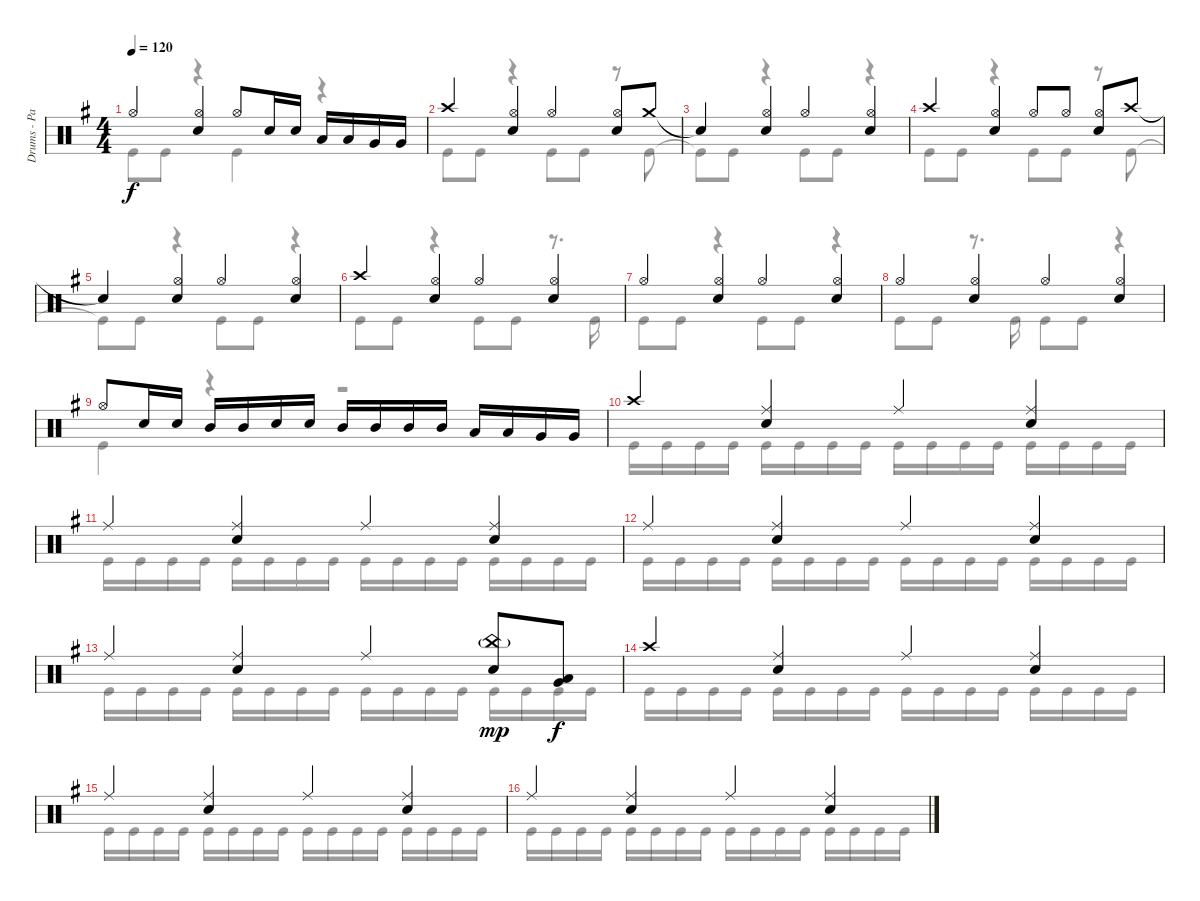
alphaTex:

\track ("Drums - Patrick Johansson" "Drums - Pa") {instrument percussion}
\staff {score}
\articulation defaults
\voice
\ts (4 4)
\tempo 120
\clef neutral
\ks eminor "Hi-Hat (open)".4{dy f}
("Hi-Hat (open)" "Snare (hit) 2").4 "Hi-Hat (open)".8 "Snare (hit) 2".16 "Snare (hit) 2".16 "Low Tom (hit)".16 "Low Tom (hit)".16 "Very Low Tom (hit)".16 "Very Low Tom (hit)".16 |
"Crash high (hit)".4 ("Hi-Hat (open)" "Snare (hit) 2").4 "Hi-Hat (open)".4 ("Hi-Hat (open)" "Snare (hit) 2").8 "Crash medium (hit)".8 |
"Snare (hit)"{t}.4 ("Hi-Hat (open)" "Snare (hit) 2").4 "Hi-Hat (open)".4 ("Hi-Hat (open)" "Snare (hit) 2").4 |
"Crash high (hit)".4 ("Hi-Hat (open)" "Snare (hit) 2").4 "Hi-Hat (open)".8 "Hi-Hat (open)".8 ("Hi-Hat (open)" "Snare (hit) 2").8 "Crash high (hit)".8 |
"Snare (hit)"{t}.4 ("Hi-Hat (open)" "Snare (hit) 2").4 "Hi-Hat (open)".4 ("Hi-Hat (open)" "Snare (hit) 2").4 |
"Crash high (hit)".4 ("Hi-Hat (open)" "Snare (hit) 2").4 "Hi-Hat (open)".4 ("Hi-Hat (open)" "Snare (hit) 2").4 |
"Hi-Hat (open)".4 ("Hi-Hat (open)" "Snare (hit) 2").4 "Hi-Hat (open)".4 ("Hi-Hat (open)" "Snare (hit) 2").4 |
"Hi-Hat (open)".4 ("Hi-Hat (open)" "Snare (hit) 2").4 "Hi-Hat (open)".4 ("Hi-Hat (open)" "Snare (hit) 2").4 |
"Hi-Hat (open)".8 "Snare (hit) 2".16 "Snare (hit) 2".16 "Mid Tom (hit)".16 "Mid Tom (hit)".16 "Snare (hit) 2".16 "Snare (hit) 2".16 "Mid Tom (hit)".16 "Mid Tom (hit)".16 "Mid Tom (hit)".16 "Mid Tom (hit)".16 "Low Tom (hit)".16 "Low Tom (hit)".16 "Very Low Tom (hit)".16 "Very Low Tom (hit)".16 |
"Crash high (hit)".4 ("Ride (middle)" "Snare (hit) 2").4 "Ride (middle)".4 ("Ride (middle)" "Snare (hit) 2").4 |
"Ride (middle)".4 ("Ride (middle)" "Snare (hit) 2").4 "Ride (middle)".4 ("Ride (middle)" "Snare (hit) 2").4 |
"Ride (middle)".4 ("Ride (middle)" "Snare (hit) 2").4 "Ride (middle)".4 ("Ride (middle)" "Snare (hit) 2").4 |
"Ride (middle)".4 ("Ride (middle)" "Snare (hit) 2").4 "Ride (middle)".4 ("China (hit)"{g} "Snare (hit) 2").8{dy mp} ("Low Tom (hit)" "Very Low Tom (hit)").8{dy f} |
"Crash high (hit)".4 ("Ride (middle)" "Snare (hit) 2").4 "Ride (middle)".4 ("Ride (middle)" "Snare (hit) 2").4 |
"Ride (middle)".4 ("Ride (middle)" "Snare (hit) 2").4 "Ride (middle)".4 ("Ride (middle)" "Snare (hit) 2").4 |
"Ride (middle)".4 ("Ride (middle)" "Snare (hit) 2").4 "Ride (middle)".4 ("Ride (middle)" "Snare (hit) 2").4
\voice
\clef neutral
\ottava regular
\simile none
\ks eminor "Kick (hit)".8{dy f} "Kick (hit)".8
r.4 "Kick (hit)".4 r.4 |
"Kick (hit)".8 "Kick (hit)".8 r.4 "Kick (hit)".8 "Kick (hit)".8 r.8 "Kick (hit)".8 |
"Kick (hit)"{t}.8 "Kick (hit)".8 r.4 "Kick (hit)".8 "Kick (hit)".8 r.4 |
"Kick (hit)".8 "Kick (hit)".8 r.4 "Kick (hit)".8 "Kick (hit)".8 r.8 "Kick (hit)".8 |
"Kick (hit)"{t}.8 "Kick (hit)".8 r.4 "Kick (hit)".8 "Kick (hit)".8 r.4 |
"Kick (hit)".8 "Kick (hit)".8 r.4 "Kick (hit)".8 "Kick (hit)".8 r.8{d} "Kick (hit)".16 |
"Kick (hit)".8 "Kick (hit)".8 r.4 "Kick (hit)".8 "Kick (hit)".8 r.4 |
"Kick (hit)".8 "Kick (hit)".8 r.8{d} "Kick (hit)".16 "Kick (hit)".8 "Kick (hit)".8 r.4 |
"Kick (hit)".4 r.4 r.2 |
"Kick (hit)".16 "Kick (hit)".16 "Kick (hit)".16 "Kick (hit)".16 "Kick (hit)".16 "Kick (hit)".16 "Kick (hit)".16 "Kick (hit)".16 "Kick (hit)".16 "Kick (hit)".16 "Kick (hit)".16 "Kick (hit)".16 "Kick (hit)".16 "Kick (hit)".16 "Kick (hit)".16 "Kick (hit)".16 |
"Kick (hit)".16 "Kick (hit)".16 "Kick (hit)".16 "Kick (hit)".16 "Kick (hit)".16 "Kick (hit)".16 "Kick (hit)".16 "Kick (hit)".16 "Kick (hit)".16 "Kick (hit)".16 "Kick (hit)".16 "Kick (hit)".16 "Kick (hit)".16 "Kick (hit)".16 "Kick (hit)".16 "Kick (hit)".16 |
"Kick (hit)".16 "Kick (hit)".16 "Kick (hit)".16 "Kick (hit)".16 "Kick (hit)".16 "Kick (hit)".16 "Kick (hit)".16 "Kick (hit)".16 "Kick (hit)".16 "Kick (hit)".16 "Kick (hit)".16 "Kick (hit)".16 "Kick (hit)".16 "Kick (hit)".16 "Kick (hit)".16 "Kick (hit)".16 |
"Kick (hit)".16 "Kick (hit)".16 "Kick (hit)".16 "Kick (hit)".16 "Kick (hit)".16 "Kick (hit)".16 "Kick (hit)".16 "Kick (hit)".16 "Kick (hit)".16 "Kick (hit)".16 "Kick (hit)".16 "Kick (hit)".16 "Kick (hit)".16 "Kick (hit)".16 "Kick (hit)".16 "Kick (hit)".16 |
"Kick (hit)".16 "Kick (hit)".16 "Kick (hit)".16 "Kick (hit)".16 "Kick (hit)".16 "Kick (hit)".16 "Kick (hit)".16 "Kick (hit)".16 "Kick (hit)".16 "Kick (hit)".16 "Kick (hit)".16 "Kick (hit)".16 "Kick (hit)".16 "Kick (hit)".16 "Kick (hit)".16 "Kick (hit)".16 |
"Kick (hit)".16 "Kick (hit)".16 "Kick (hit)".16 "Kick (hit)".16 "Kick (hit)".16 "Kick (hit)".16 "Kick (hit)".16 "Kick (hit)".16 "Kick (hit)".16 "Kick (hit)".16 "Kick (hit)".16 "Kick (hit)".16 "Kick (hit)".16 "Kick (hit)".16 "Kick (hit)".16 "Kick (hit)".16 |
"Kick (hit)".16 "Kick (hit)".16 "Kick (hit)".16 "Kick (hit)".16 "Kick (hit)".16 "Kick (hit)".16 "Kick (hit)".16 "Kick (hit)".16 "Kick (hit)".16 "Kick (hit)".16 "Kick (hit)".16 "Kick (hit)".16 "Kick (hit)".16 "Kick (hit)".16 "Kick (hit)".16 "Kick (hit)".16
